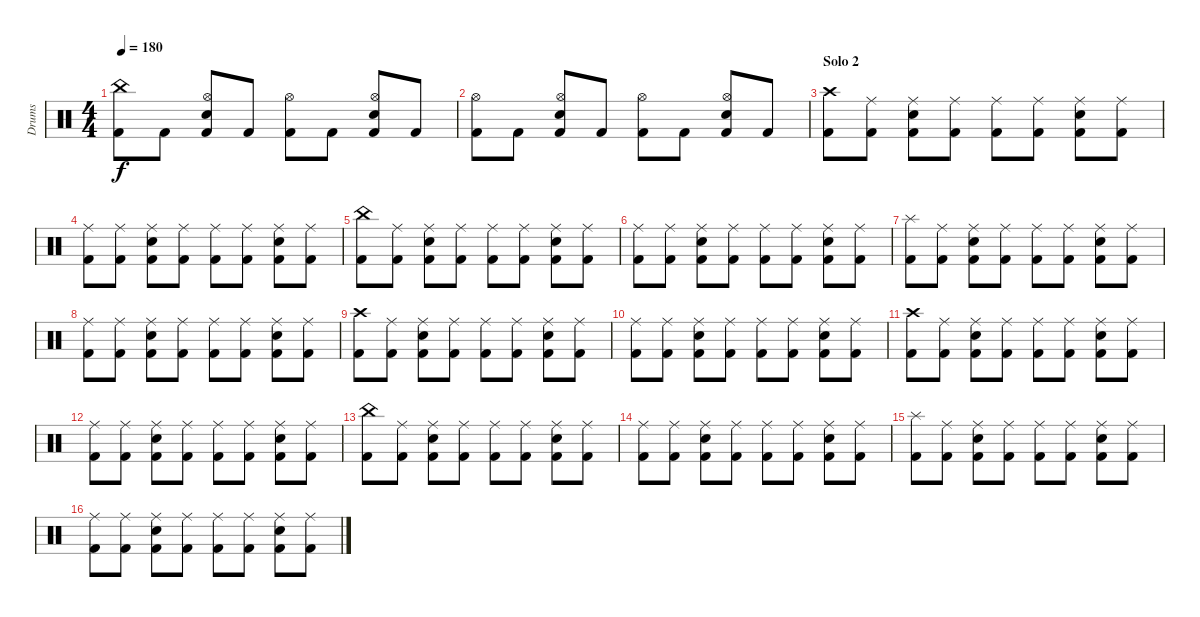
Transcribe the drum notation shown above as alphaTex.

\track ("Drums" "Drums") {instrument percussion}
\staff {score}
\articulation defaults
\ts (4 4)
\tempo 180
\clef neutral
\ks c
("China (hit)" "Kick (hit) 2").8{dy f} "Kick (hit) 2".8 ("Hi-Hat (open)" "Electric Snare (hit)" "Kick (hit) 2").8 "Kick (hit) 2".8 ("Hi-Hat (open)" "Kick (hit) 2").8 "Kick (hit) 2".8 ("Hi-Hat (open)" "Electric Snare (hit)" "Kick (hit) 2").8 "Kick (hit) 2".8 |
("Hi-Hat (open)" "Kick (hit) 2").8 "Kick (hit) 2".8 ("Hi-Hat (open)" "Electric Snare (hit)" "Kick (hit) 2").8 "Kick (hit) 2".8 ("Hi-Hat (open)" "Kick (hit) 2").8 "Kick (hit) 2".8 ("Hi-Hat (open)" "Electric Snare (hit)" "Kick (hit) 2").8 "Kick (hit) 2".8 |
\section ("" "Solo 2")
("Crash high (hit)" "Kick (hit) 2").8 ("Ride (middle)" "Kick (hit) 2").8 ("Ride (middle)" "Electric Snare (hit)" "Kick (hit) 2").8 ("Ride (middle)" "Kick (hit) 2").8 ("Ride (middle)" "Kick (hit) 2").8 ("Ride (middle)" "Kick (hit) 2").8 ("Ride (middle)" "Electric Snare (hit)" "Kick (hit) 2").8 ("Ride (middle)" "Kick (hit) 2").8 |
("Ride (middle)" "Kick (hit) 2").8 ("Ride (middle)" "Kick (hit) 2").8 ("Ride (middle)" "Electric Snare (hit)" "Kick (hit) 2").8 ("Ride (middle)" "Kick (hit) 2").8 ("Ride (middle)" "Kick (hit) 2").8 ("Ride (middle)" "Kick (hit) 2").8 ("Ride (middle)" "Electric Snare (hit)" "Kick (hit) 2").8 ("Ride (middle)" "Kick (hit) 2").8 |
("China (hit)" "Kick (hit) 2").8 ("Ride (middle)" "Kick (hit) 2").8 ("Ride (middle)" "Electric Snare (hit)" "Kick (hit) 2").8 ("Ride (middle)" "Kick (hit) 2").8 ("Ride (middle)" "Kick (hit) 2").8 ("Ride (middle)" "Kick (hit) 2").8 ("Ride (middle)" "Electric Snare (hit)" "Kick (hit) 2").8 ("Ride (middle)" "Kick (hit) 2").8 |
("Ride (middle)" "Kick (hit) 2").8 ("Ride (middle)" "Kick (hit) 2").8 ("Ride (middle)" "Electric Snare (hit)" "Kick (hit) 2").8 ("Ride (middle)" "Kick (hit) 2").8 ("Ride (middle)" "Kick (hit) 2").8 ("Ride (middle)" "Kick (hit) 2").8 ("Ride (middle)" "Electric Snare (hit)" "Kick (hit) 2").8 ("Ride (middle)" "Kick (hit) 2").8 |
("Splash (hit)" "Kick (hit) 2").8 ("Ride (middle)" "Kick (hit) 2").8 ("Ride (middle)" "Electric Snare (hit)" "Kick (hit) 2").8 ("Ride (middle)" "Kick (hit) 2").8 ("Ride (middle)" "Kick (hit) 2").8 ("Ride (middle)" "Kick (hit) 2").8 ("Ride (middle)" "Electric Snare (hit)" "Kick (hit) 2").8 ("Ride (middle)" "Kick (hit) 2").8 |
("Ride (middle)" "Kick (hit) 2").8 ("Ride (middle)" "Kick (hit) 2").8 ("Ride (middle)" "Electric Snare (hit)" "Kick (hit) 2").8 ("Ride (middle)" "Kick (hit) 2").8 ("Ride (middle)" "Kick (hit) 2").8 ("Ride (middle)" "Kick (hit) 2").8 ("Ride (middle)" "Electric Snare (hit)" "Kick (hit) 2").8 ("Ride (middle)" "Kick (hit) 2").8 |
("Crash high (hit)" "Kick (hit) 2").8 ("Ride (middle)" "Kick (hit) 2").8 ("Ride (middle)" "Electric Snare (hit)" "Kick (hit) 2").8 ("Ride (middle)" "Kick (hit) 2").8 ("Ride (middle)" "Kick (hit) 2").8 ("Ride (middle)" "Kick (hit) 2").8 ("Ride (middle)" "Electric Snare (hit)" "Kick (hit) 2").8 ("Ride (middle)" "Kick (hit) 2").8 |
("Ride (middle)" "Kick (hit) 2").8 ("Ride (middle)" "Kick (hit) 2").8 ("Ride (middle)" "Electric Snare (hit)" "Kick (hit) 2").8 ("Ride (middle)" "Kick (hit) 2").8 ("Ride (middle)" "Kick (hit) 2").8 ("Ride (middle)" "Kick (hit) 2").8 ("Ride (middle)" "Electric Snare (hit)" "Kick (hit) 2").8 ("Ride (middle)" "Kick (hit) 2").8 |
("Crash high (hit)" "Kick (hit) 2").8 ("Ride (middle)" "Kick (hit) 2").8 ("Ride (middle)" "Electric Snare (hit)" "Kick (hit) 2").8 ("Ride (middle)" "Kick (hit) 2").8 ("Ride (middle)" "Kick (hit) 2").8 ("Ride (middle)" "Kick (hit) 2").8 ("Ride (middle)" "Electric Snare (hit)" "Kick (hit) 2").8 ("Ride (middle)" "Kick (hit) 2").8 |
("Ride (middle)" "Kick (hit) 2").8 ("Ride (middle)" "Kick (hit) 2").8 ("Ride (middle)" "Electric Snare (hit)" "Kick (hit) 2").8 ("Ride (middle)" "Kick (hit) 2").8 ("Ride (middle)" "Kick (hit) 2").8 ("Ride (middle)" "Kick (hit) 2").8 ("Ride (middle)" "Electric Snare (hit)" "Kick (hit) 2").8 ("Ride (middle)" "Kick (hit) 2").8 |
("China (hit)" "Kick (hit) 2").8 ("Ride (middle)" "Kick (hit) 2").8 ("Ride (middle)" "Electric Snare (hit)" "Kick (hit) 2").8 ("Ride (middle)" "Kick (hit) 2").8 ("Ride (middle)" "Kick (hit) 2").8 ("Ride (middle)" "Kick (hit) 2").8 ("Ride (middle)" "Electric Snare (hit)" "Kick (hit) 2").8 ("Ride (middle)" "Kick (hit) 2").8 |
("Ride (middle)" "Kick (hit) 2").8 ("Ride (middle)" "Kick (hit) 2").8 ("Ride (middle)" "Electric Snare (hit)" "Kick (hit) 2").8 ("Ride (middle)" "Kick (hit) 2").8 ("Ride (middle)" "Kick (hit) 2").8 ("Ride (middle)" "Kick (hit) 2").8 ("Ride (middle)" "Electric Snare (hit)" "Kick (hit) 2").8 ("Ride (middle)" "Kick (hit) 2").8 |
("Splash (hit)" "Kick (hit) 2").8 ("Ride (middle)" "Kick (hit) 2").8 ("Ride (middle)" "Electric Snare (hit)" "Kick (hit) 2").8 ("Ride (middle)" "Kick (hit) 2").8 ("Ride (middle)" "Kick (hit) 2").8 ("Ride (middle)" "Kick (hit) 2").8 ("Ride (middle)" "Electric Snare (hit)" "Kick (hit) 2").8 ("Ride (middle)" "Kick (hit) 2").8 |
("Ride (middle)" "Kick (hit) 2").8 ("Ride (middle)" "Kick (hit) 2").8 ("Ride (middle)" "Electric Snare (hit)" "Kick (hit) 2").8 ("Ride (middle)" "Kick (hit) 2").8 ("Ride (middle)" "Kick (hit) 2").8 ("Ride (middle)" "Kick (hit) 2").8 ("Ride (middle)" "Electric Snare (hit)" "Kick (hit) 2").8 ("Ride (middle)" "Kick (hit) 2").8
